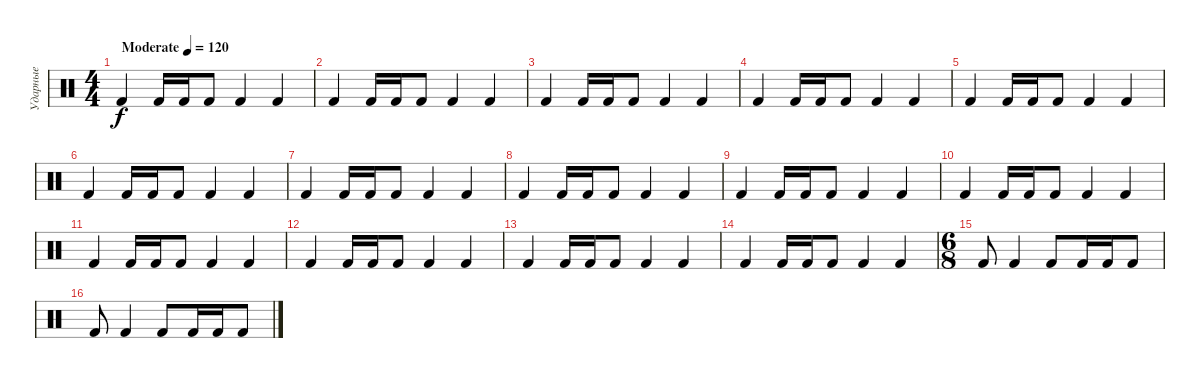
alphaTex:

\track ("Ударные" "Ударные") {instrument percussion}
\staff {score}
\articulation defaults
\ts (4 4)
\tempo (120 "Moderate")
\clef neutral
\ks c "Kick (hit) 2".4{dy f} "Kick (hit) 2".16 "Kick (hit) 2".16 "Kick (hit) 2".8 "Kick (hit) 2".4 "Kick (hit) 2".4
|
"Kick (hit) 2".4 "Kick (hit) 2".16 "Kick (hit) 2".16 "Kick (hit) 2".8 "Kick (hit) 2".4 "Kick (hit) 2".4 |
"Kick (hit) 2".4 "Kick (hit) 2".16 "Kick (hit) 2".16 "Kick (hit) 2".8 "Kick (hit) 2".4 "Kick (hit) 2".4 |
"Kick (hit) 2".4 "Kick (hit) 2".16 "Kick (hit) 2".16 "Kick (hit) 2".8 "Kick (hit) 2".4 "Kick (hit) 2".4 |
"Kick (hit) 2".4 "Kick (hit) 2".16 "Kick (hit) 2".16 "Kick (hit) 2".8 "Kick (hit) 2".4 "Kick (hit) 2".4 |
"Kick (hit) 2".4 "Kick (hit) 2".16 "Kick (hit) 2".16 "Kick (hit) 2".8 "Kick (hit) 2".4 "Kick (hit) 2".4 |
"Kick (hit) 2".4 "Kick (hit) 2".16 "Kick (hit) 2".16 "Kick (hit) 2".8 "Kick (hit) 2".4 "Kick (hit) 2".4 |
"Kick (hit) 2".4 "Kick (hit) 2".16 "Kick (hit) 2".16 "Kick (hit) 2".8 "Kick (hit) 2".4 "Kick (hit) 2".4 |
"Kick (hit) 2".4 "Kick (hit) 2".16 "Kick (hit) 2".16 "Kick (hit) 2".8 "Kick (hit) 2".4 "Kick (hit) 2".4 |
"Kick (hit) 2".4 "Kick (hit) 2".16 "Kick (hit) 2".16 "Kick (hit) 2".8 "Kick (hit) 2".4 "Kick (hit) 2".4 |
"Kick (hit) 2".4 "Kick (hit) 2".16 "Kick (hit) 2".16 "Kick (hit) 2".8 "Kick (hit) 2".4 "Kick (hit) 2".4 |
"Kick (hit) 2".4 "Kick (hit) 2".16 "Kick (hit) 2".16 "Kick (hit) 2".8 "Kick (hit) 2".4 "Kick (hit) 2".4 |
"Kick (hit) 2".4 "Kick (hit) 2".16 "Kick (hit) 2".16 "Kick (hit) 2".8 "Kick (hit) 2".4 "Kick (hit) 2".4 |
"Kick (hit) 2".4 "Kick (hit) 2".16 "Kick (hit) 2".16 "Kick (hit) 2".8 "Kick (hit) 2".4 "Kick (hit) 2".4 |
\ts (6 8)
"Kick (hit) 2".8 "Kick (hit) 2".4 "Kick (hit) 2".8 "Kick (hit) 2".16 "Kick (hit) 2".16 "Kick (hit) 2".8 |
"Kick (hit) 2".8 "Kick (hit) 2".4 "Kick (hit) 2".8 "Kick (hit) 2".16 "Kick (hit) 2".16 "Kick (hit) 2".8
